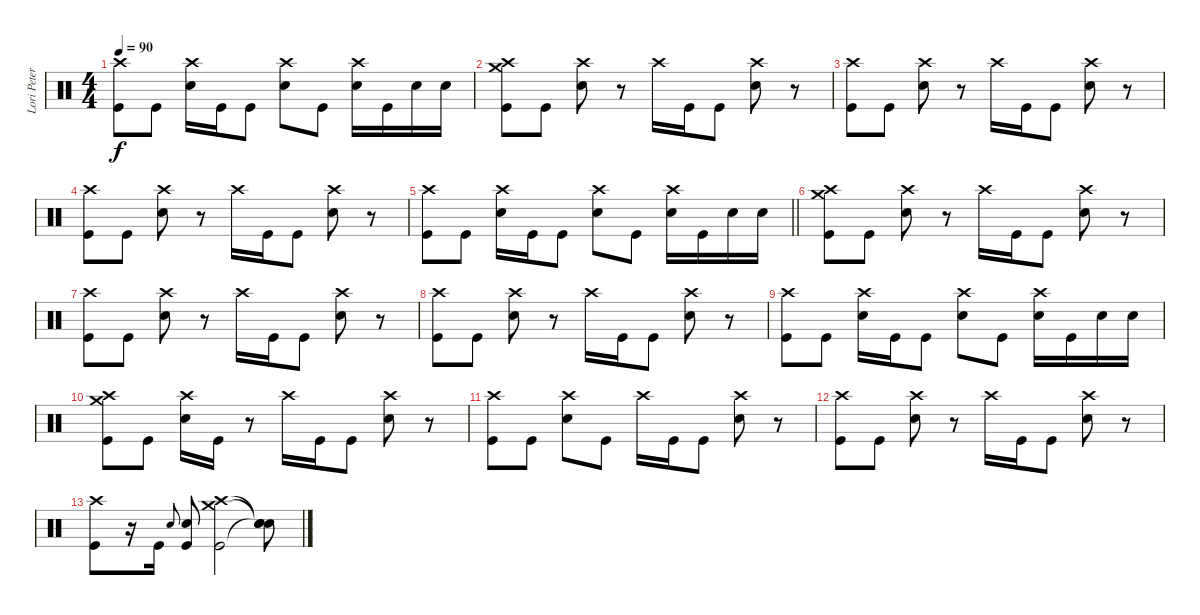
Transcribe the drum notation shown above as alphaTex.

\track ("Lori Peters" "Lori Peter") {instrument percussion}
\staff {score}
\articulation defaults
\ts (4 4)
\tempo 90
\clef neutral
\ks c
("Crash high (hit)" "Kick (hit)").8{dy f} "Kick (hit)".8 ("Crash high (hit)" "Electric Snare (hit)").16 "Kick (hit)".16 "Kick (hit)".8 ("Crash high (hit)" "Electric Snare (hit)").8 "Kick (hit)".8 ("Crash high (hit)" "Electric Snare (hit)").16 "Kick (hit)".16 "Electric Snare (hit)".16 "Electric Snare (hit)".16 |
("Crash high (hit)" "Crash medium (hit)" "Kick (hit)").8 "Kick (hit)".8 ("Crash high (hit)" "Electric Snare (hit)").8 r.8 "Crash high (hit)".16 "Kick (hit)".16 "Kick (hit)".8 ("Crash high (hit)" "Electric Snare (hit)").8 r.8 |
("Crash high (hit)" "Kick (hit)").8 "Kick (hit)".8 ("Crash high (hit)" "Electric Snare (hit)").8 r.8 "Crash high (hit)".16 "Kick (hit)".16 "Kick (hit)".8 ("Crash high (hit)" "Electric Snare (hit)").8 r.8 |
("Crash high (hit)" "Kick (hit)").8 "Kick (hit)".8 ("Crash high (hit)" "Electric Snare (hit)").8 r.8 "Crash high (hit)".16 "Kick (hit)".16 "Kick (hit)".8 ("Crash high (hit)" "Electric Snare (hit)").8 r.8 |
\barLineRight lightlight
("Crash high (hit)" "Kick (hit)").8 "Kick (hit)".8 ("Crash high (hit)" "Electric Snare (hit)").16 "Kick (hit)".16 "Kick (hit)".8 ("Crash high (hit)" "Electric Snare (hit)").8 "Kick (hit)".8 ("Crash high (hit)" "Electric Snare (hit)").16 "Kick (hit)".16 "Electric Snare (hit)".16 "Electric Snare (hit)".16 |
("Crash high (hit)" "Crash medium (hit)" "Kick (hit)").8 "Kick (hit)".8 ("Crash high (hit)" "Electric Snare (hit)").8 r.8 "Crash high (hit)".16 "Kick (hit)".16 "Kick (hit)".8 ("Crash high (hit)" "Electric Snare (hit)").8 r.8 |
("Crash high (hit)" "Kick (hit)").8 "Kick (hit)".8 ("Crash high (hit)" "Electric Snare (hit)").8 r.8 "Crash high (hit)".16 "Kick (hit)".16 "Kick (hit)".8 ("Crash high (hit)" "Electric Snare (hit)").8 r.8 |
("Crash high (hit)" "Kick (hit)").8 "Kick (hit)".8 ("Crash high (hit)" "Electric Snare (hit)").8 r.8 "Crash high (hit)".16 "Kick (hit)".16 "Kick (hit)".8 ("Crash high (hit)" "Electric Snare (hit)").8 r.8 |
("Crash high (hit)" "Kick (hit)").8 "Kick (hit)".8 ("Crash high (hit)" "Electric Snare (hit)").16 "Kick (hit)".16 "Kick (hit)".8 ("Crash high (hit)" "Electric Snare (hit)").8 "Kick (hit)".8 ("Crash high (hit)" "Electric Snare (hit)").16 "Kick (hit)".16 "Electric Snare (hit)".16 "Electric Snare (hit)".16 |
("Crash high (hit)" "Crash medium (hit)" "Kick (hit)").8 "Kick (hit)".8 ("Crash high (hit)" "Electric Snare (hit)").16 "Kick (hit)".16 r.8 "Crash high (hit)".16 "Kick (hit)".16 "Kick (hit)".8 ("Crash high (hit)" "Electric Snare (hit)").8 r.8 |
("Crash high (hit)" "Kick (hit)").8 "Kick (hit)".8 ("Crash high (hit)" "Electric Snare (hit)").8 "Kick (hit)".8 "Crash high (hit)".16 "Kick (hit)".16 "Kick (hit)".8 ("Crash high (hit)" "Electric Snare (hit)").8 r.8 |
("Crash high (hit)" "Kick (hit)").8 "Kick (hit)".8 ("Crash high (hit)" "Electric Snare (hit)").8 r.8 "Crash high (hit)".16 "Kick (hit)".16 "Kick (hit)".8 ("Crash high (hit)" "Electric Snare (hit)").8 r.8 |
("Crash high (hit)" "Kick (hit)").8 r.16 "Kick (hit)".16 "Electric Snare (hit)".8{gr onbeat} ("Electric Snare (hit)" "Kick (hit)").8 ("Crash high (hit)" "Crash medium (hit)" "Kick (hit)").2 ("Snare (hit)"{t} "Snare (hit)"{t} "Snare (hit)"{t}).8
